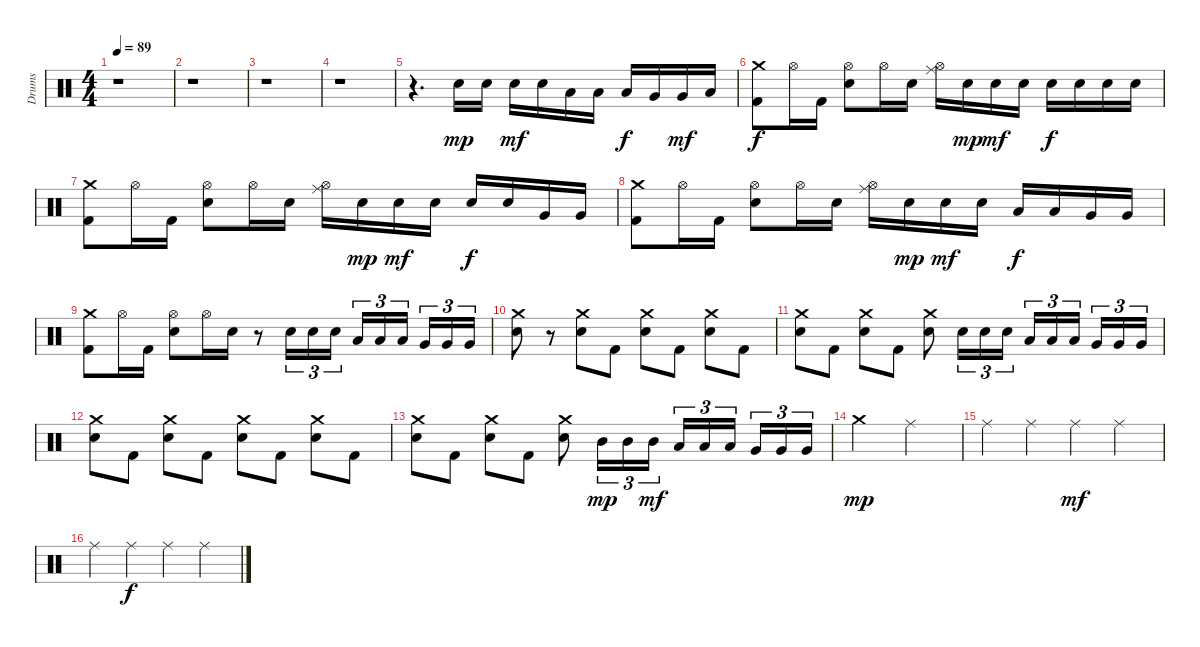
\track ("Drums" "Drums") {instrument percussion}
\staff {score}
\articulation defaults
\ts (4 4)
\tempo 89
\clef neutral
\ks c
r.1{dy f} |
r.1 |
r.1 |
r.1 |
r.4{d} "Electric Snare (hit)".16{dy mp} "Electric Snare (hit)".16 "Electric Snare (hit)".16{dy mf} "Electric Snare (hit)".16 "Low Tom (hit)".16 "Low Tom (hit)".16 "Low Tom (hit)".16{dy f} "Very Low Tom (hit)".16 "Very Low Tom (hit)".16{dy mf} "Low Floor Tom (hit)".16 |
("Crash medium (hit)" "Kick (hit) 2").8{dy f} "Hi-Hat (open)".16 "Kick (hit) 2".16 ("Hi-Hat (open)" "Electric Snare (hit)").8 "Hi-Hat (open)".16 "Electric Snare (hit)".16 ("Ride (middle)" "Hi-Hat (open)").16 "Electric Snare (hit)".16{dy mp} "Electric Snare (hit)".16{dy mf} "Electric Snare (hit)".16 "Electric Snare (hit)".16{dy f} "Electric Snare (hit)".16 "Electric Snare (hit)".16 "Electric Snare (hit)".16 |
("Crash medium (hit)" "Kick (hit) 2").8 "Hi-Hat (open)".16 "Kick (hit) 2".16 ("Hi-Hat (open)" "Electric Snare (hit)").8 "Hi-Hat (open)".16 "Electric Snare (hit)".16 ("Ride (middle)" "Hi-Hat (open)").16 "Electric Snare (hit)".16{dy mp} "Electric Snare (hit)".16{dy mf} "Electric Snare (hit)".16 "Electric Snare (hit)".16{dy f} "Electric Snare (hit)".16 "Very Low Tom (hit)".16 "Very Low Tom (hit)".16 |
("Crash medium (hit)" "Kick (hit) 2").8 "Hi-Hat (open)".16 "Kick (hit) 2".16 ("Hi-Hat (open)" "Electric Snare (hit)").8 "Hi-Hat (open)".16 "Electric Snare (hit)".16 ("Ride (middle)" "Hi-Hat (open)").16 "Electric Snare (hit)".16{dy mp} "Electric Snare (hit)".16{dy mf} "Electric Snare (hit)".16 "Low Tom (hit)".16{dy f} "Low Tom (hit)".16 "Very Low Tom (hit)".16 "Very Low Tom (hit)".16 |
("Crash medium (hit)" "Kick (hit) 2").8 "Hi-Hat (open)".16 "Kick (hit) 2".16 ("Hi-Hat (open)" "Electric Snare (hit)").8 "Hi-Hat (open)".16 "Electric Snare (hit)".16 r.8 "Electric Snare (hit)".16{tu (3 2)} "Electric Snare (hit)".16{tu (3 2)} "Electric Snare (hit)".16{tu (3 2)} "Low Tom (hit)".16{tu (3 2)} "Low Tom (hit)".16{tu (3 2)} "Low Tom (hit)".16{tu (3 2)} "Very Low Tom (hit)".16{tu (3 2)} "Very Low Tom (hit)".16{tu (3 2)} "Very Low Tom (hit)".16{tu (3 2)} |
("Crash medium (hit)" "Electric Snare (hit)").8 r.8 ("Crash medium (hit)" "Electric Snare (hit)").8 "Kick (hit) 2".8 ("Crash medium (hit)" "Electric Snare (hit)").8 "Kick (hit) 2".8 ("Crash medium (hit)" "Electric Snare (hit)").8 "Kick (hit) 2".8 |
("Crash medium (hit)" "Electric Snare (hit)").8 "Kick (hit) 2".8 ("Crash medium (hit)" "Electric Snare (hit)").8 "Kick (hit) 2".8 ("Crash medium (hit)" "Electric Snare (hit)").8 "Electric Snare (hit)".16{tu (3 2)} "Electric Snare (hit)".16{tu (3 2)} "Electric Snare (hit)".16{tu (3 2)} "Low Tom (hit)".16{tu (3 2)} "Low Tom (hit)".16{tu (3 2)} "Low Tom (hit)".16{tu (3 2)} "Very Low Tom (hit)".16{tu (3 2)} "Very Low Tom (hit)".16{tu (3 2)} "Very Low Tom (hit)".16{tu (3 2)} |
("Crash medium (hit)" "Electric Snare (hit)").8 "Kick (hit) 2".8 ("Crash medium (hit)" "Electric Snare (hit)").8 "Kick (hit) 2".8 ("Crash medium (hit)" "Electric Snare (hit)").8 "Kick (hit) 2".8 ("Crash medium (hit)" "Electric Snare (hit)").8 "Kick (hit) 2".8 |
("Crash medium (hit)" "Electric Snare (hit)").8 "Kick (hit) 2".8 ("Crash medium (hit)" "Electric Snare (hit)").8 "Kick (hit) 2".8 ("Crash medium (hit)" "Electric Snare (hit)").8 "Mid Tom (hit)".16{tu (3 2) dy mp} "Mid Tom (hit)".16{tu (3 2)} "Mid Tom (hit)".16{tu (3 2) dy mf} "Low Tom (hit)".16{tu (3 2)} "Low Tom (hit)".16{tu (3 2)} "Low Tom (hit)".16{tu (3 2)} "Very Low Tom (hit)".16{tu (3 2)} "Very Low Tom (hit)".16{tu (3 2)} "Very Low Tom (hit)".16{tu (3 2)} |
"Crash medium (hit)".2{dy mp} "Ride (middle)".2 |
"Ride (middle)".4 "Ride (middle)".4 "Ride (middle)".4{dy mf} "Ride (middle)".4 |
"Ride (middle)".4 "Ride (middle)".4{dy f} "Ride (middle)".4 "Ride (middle)".4
